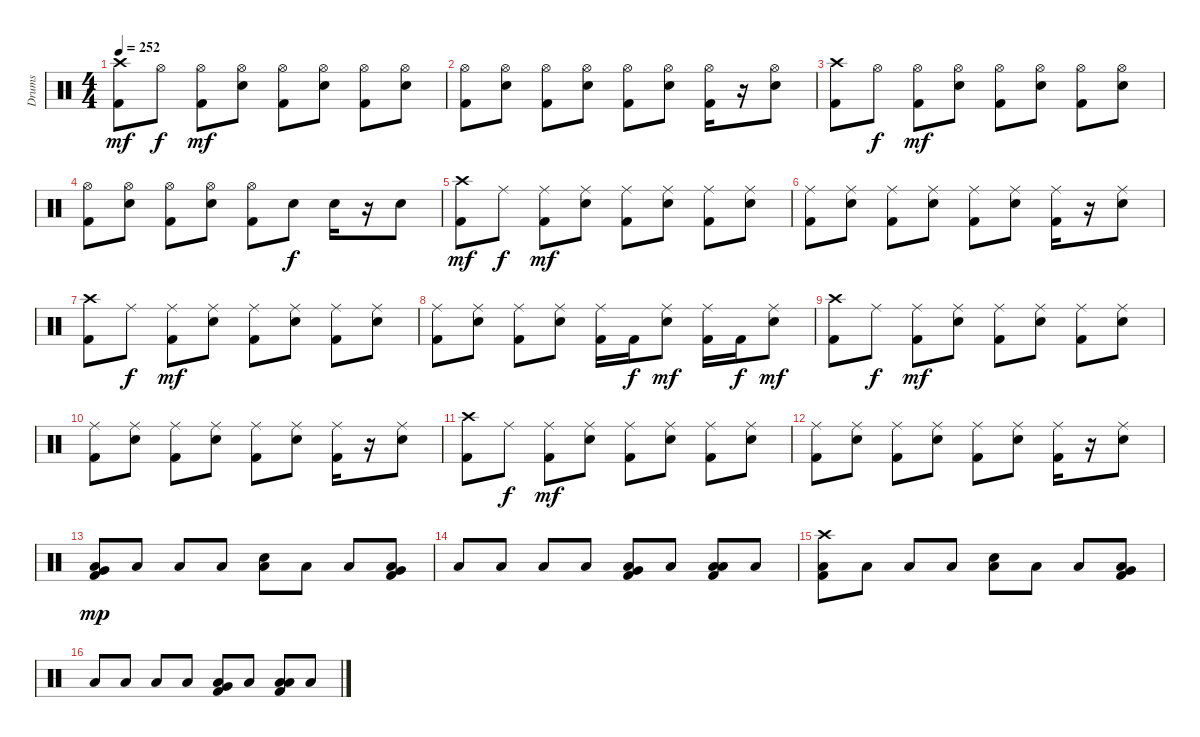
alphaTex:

\track ("Drums" "Drums") {instrument percussion}
\staff {score}
\articulation defaults
\ts (4 4)
\tempo 252
\clef neutral
\ks c
("Crash high (hit)" "Kick (hit) 2").8{dy mf} "Hi-Hat (open)".8{dy f} ("Hi-Hat (open)" "Kick (hit) 2").8{dy mf} ("Hi-Hat (open)" "Snare (hit) 2").8 ("Hi-Hat (open)" "Kick (hit) 2").8 ("Hi-Hat (open)" "Snare (hit) 2").8 ("Hi-Hat (open)" "Kick (hit) 2").8 ("Hi-Hat (open)" "Snare (hit) 2").8 |
("Hi-Hat (open)" "Kick (hit) 2").8 ("Hi-Hat (open)" "Snare (hit) 2").8 ("Hi-Hat (open)" "Kick (hit) 2").8 ("Hi-Hat (open)" "Snare (hit) 2").8 ("Hi-Hat (open)" "Kick (hit) 2").8 ("Hi-Hat (open)" "Snare (hit) 2").8 ("Hi-Hat (open)" "Kick (hit) 2").16 r.16 ("Hi-Hat (open)" "Snare (hit) 2").8 |
("Crash high (hit)" "Kick (hit) 2").8 "Hi-Hat (open)".8{dy f} ("Hi-Hat (open)" "Kick (hit) 2").8{dy mf} ("Hi-Hat (open)" "Snare (hit) 2").8 ("Hi-Hat (open)" "Kick (hit) 2").8 ("Hi-Hat (open)" "Snare (hit) 2").8 ("Hi-Hat (open)" "Kick (hit) 2").8 ("Hi-Hat (open)" "Snare (hit) 2").8 |
("Hi-Hat (open)" "Kick (hit) 2").8 ("Hi-Hat (open)" "Snare (hit) 2").8 ("Hi-Hat (open)" "Kick (hit) 2").8 ("Hi-Hat (open)" "Snare (hit) 2").8 ("Hi-Hat (open)" "Kick (hit) 2").8 "Snare (hit) 2".8{dy f} "Snare (hit) 2".16 r.16 "Snare (hit) 2".8 |
("Crash high (hit)" "Kick (hit) 2").8{dy mf} "Ride (middle)".8{dy f} ("Ride (middle)" "Kick (hit) 2").8{dy mf} ("Ride (middle)" "Snare (hit) 2").8 ("Ride (middle)" "Kick (hit) 2").8 ("Ride (middle)" "Snare (hit) 2").8 ("Ride (middle)" "Kick (hit) 2").8 ("Ride (middle)" "Snare (hit) 2").8 |
("Ride (middle)" "Kick (hit) 2").8 ("Ride (middle)" "Snare (hit) 2").8 ("Ride (middle)" "Kick (hit) 2").8 ("Ride (middle)" "Snare (hit) 2").8 ("Ride (middle)" "Kick (hit) 2").8 ("Ride (middle)" "Snare (hit) 2").8 ("Ride (middle)" "Kick (hit) 2").16 r.16 ("Ride (middle)" "Snare (hit) 2").8 |
("Crash high (hit)" "Kick (hit) 2").8 "Ride (middle)".8{dy f} ("Ride (middle)" "Kick (hit) 2").8{dy mf} ("Ride (middle)" "Snare (hit) 2").8 ("Ride (middle)" "Kick (hit) 2").8 ("Ride (middle)" "Snare (hit) 2").8 ("Ride (middle)" "Kick (hit) 2").8 ("Ride (middle)" "Snare (hit) 2").8 |
("Ride (middle)" "Kick (hit) 2").8 ("Ride (middle)" "Snare (hit) 2").8 ("Ride (middle)" "Kick (hit) 2").8 ("Ride (middle)" "Snare (hit) 2").8 ("Ride (middle)" "Kick (hit) 2").16 "Kick (hit) 2".16{dy f} ("Ride (middle)" "Snare (hit) 2").8{dy mf} ("Ride (middle)" "Kick (hit) 2").16 "Kick (hit) 2".16{dy f} ("Ride (middle)" "Snare (hit) 2").8{dy mf} |
("Crash high (hit)" "Kick (hit) 2").8 "Ride (middle)".8{dy f} ("Ride (middle)" "Kick (hit) 2").8{dy mf} ("Ride (middle)" "Snare (hit) 2").8 ("Ride (middle)" "Kick (hit) 2").8 ("Ride (middle)" "Snare (hit) 2").8 ("Ride (middle)" "Kick (hit) 2").8 ("Ride (middle)" "Snare (hit) 2").8 |
("Ride (middle)" "Kick (hit) 2").8 ("Ride (middle)" "Snare (hit) 2").8 ("Ride (middle)" "Kick (hit) 2").8 ("Ride (middle)" "Snare (hit) 2").8 ("Ride (middle)" "Kick (hit) 2").8 ("Ride (middle)" "Snare (hit) 2").8 ("Ride (middle)" "Kick (hit) 2").16 r.16 ("Ride (middle)" "Snare (hit) 2").8 |
("Crash high (hit)" "Kick (hit) 2").8 "Ride (middle)".8{dy f} ("Ride (middle)" "Kick (hit) 2").8{dy mf} ("Ride (middle)" "Snare (hit) 2").8 ("Ride (middle)" "Kick (hit) 2").8 ("Ride (middle)" "Snare (hit) 2").8 ("Ride (middle)" "Kick (hit) 2").8 ("Ride (middle)" "Snare (hit) 2").8 |
("Ride (middle)" "Kick (hit) 2").8 ("Ride (middle)" "Snare (hit) 2").8 ("Ride (middle)" "Kick (hit) 2").8 ("Ride (middle)" "Snare (hit) 2").8 ("Ride (middle)" "Kick (hit) 2").8 ("Ride (middle)" "Snare (hit) 2").8 ("Ride (middle)" "Kick (hit) 2").16 r.16 ("Ride (middle)" "Snare (hit) 2").8 |
("Very Low Tom (hit)" "Low Floor Tom (hit)" "Kick (hit) 2").8{dy mp} "Low Floor Tom (hit)".8 "Low Floor Tom (hit)".8 "Low Floor Tom (hit)".8 ("Low Floor Tom (hit)" "Snare (hit) 2").8 "Low Floor Tom (hit)".8 "Low Floor Tom (hit)".8 ("Very Low Tom (hit)" "Low Floor Tom (hit)" "Kick (hit) 2").8 |
"Low Floor Tom (hit)".8 "Low Floor Tom (hit)".8 "Low Floor Tom (hit)".8 "Low Floor Tom (hit)".8 ("Very Low Tom (hit)" "Low Floor Tom (hit)" "Kick (hit) 2").8 "Low Floor Tom (hit)".8 ("Low Floor Tom (hit)" "Low Floor Tom (hit)" "Kick (hit) 2").8 "Low Floor Tom (hit)".8 |
("Crash high (hit)" "Low Floor Tom (hit)" "Kick (hit) 2").8 "Low Floor Tom (hit)".8 "Low Floor Tom (hit)".8 "Low Floor Tom (hit)".8 ("Low Floor Tom (hit)" "Snare (hit) 2").8 "Low Floor Tom (hit)".8 "Low Floor Tom (hit)".8 ("Very Low Tom (hit)" "Low Floor Tom (hit)" "Kick (hit) 2").8 |
"Low Floor Tom (hit)".8 "Low Floor Tom (hit)".8 "Low Floor Tom (hit)".8 "Low Floor Tom (hit)".8 ("Very Low Tom (hit)" "Low Floor Tom (hit)" "Kick (hit) 2").8 "Low Floor Tom (hit)".8 ("Low Floor Tom (hit)" "Low Floor Tom (hit)" "Kick (hit) 2").8 "Low Floor Tom (hit)".8
